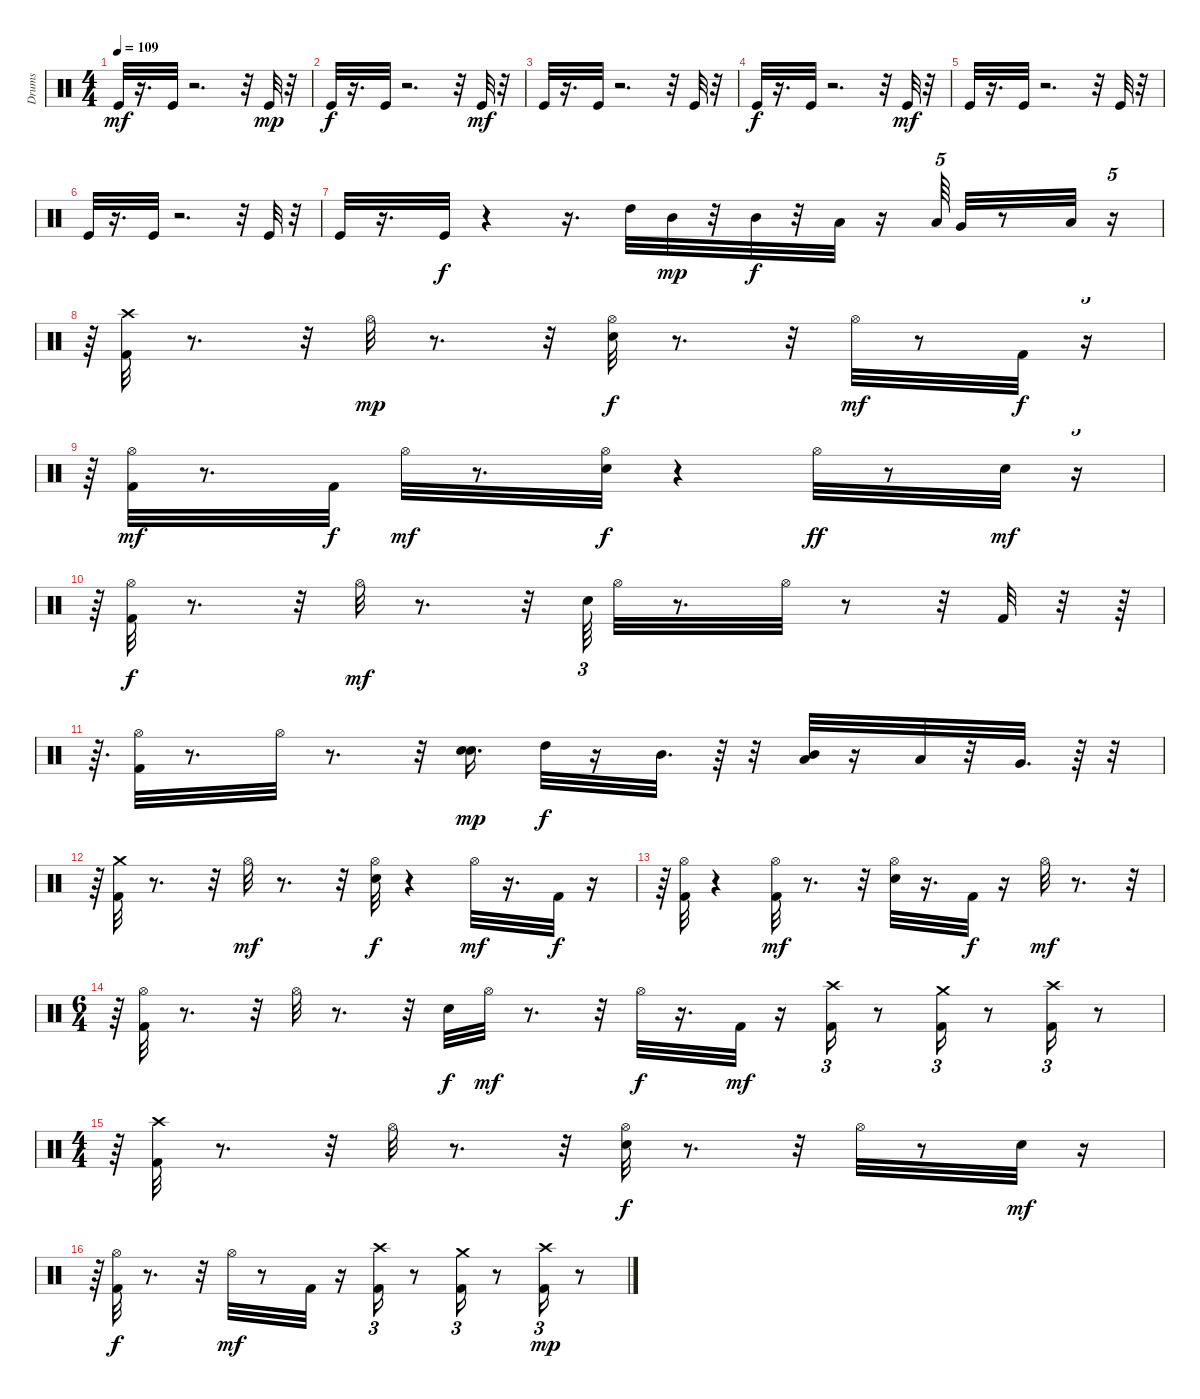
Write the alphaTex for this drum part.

\track ("Drums" "Drums") {solo instrument percussion}
\staff {score}
\articulation defaults
\ts (4 4)
\tempo 109
\clef neutral
\ks c "Kick (hit)".32{dy mf}
r.16{d} "Kick (hit)".32 r.2{d} r.32 "Kick (hit)".32{dy mp} r.32 |
"Kick (hit)".32{dy f} r.16{d} "Kick (hit)".32 r.2{d} r.32 "Kick (hit)".32{dy mf} r.32 |
"Kick (hit)".32 r.16{d} "Kick (hit)".32 r.2{d} r.32 "Kick (hit)".32 r.32 |
"Kick (hit)".32{dy f} r.16{d} "Kick (hit)".32 r.2{d} r.32 "Kick (hit)".32{dy mf} r.32 |
"Kick (hit)".32 r.16{d} "Kick (hit)".32 r.2{d} r.32 "Kick (hit)".32 r.32 |
"Kick (hit)".32 r.16{d} "Kick (hit)".32 r.2{d} r.32 "Kick (hit)".32 r.32 |
"Kick (hit)".32 r.16{d} "Kick (hit)".32{dy f} r.4 r.16{d} "High Tom (hit)".32 "Mid Tom (hit)".32{dy mp} r.32 "Mid Tom (hit)".32{dy f} r.32 "Low Tom (hit)".32 r.16 "Low Tom (hit)".64{tu (5 4)} "Very Low Tom (hit)".32 r.8 "Low Floor Tom (hit)".32 r.16{tu (5 4)} |
r.64{tu (5 4)} ("Kick (hit) 2" "Crash high (hit)").32 r.8{d} r.32 "Hi-Hat (open)".32{dy mp} r.8{d} r.32 ("Electric Snare (hit)" "Hi-Hat (open)").32{dy f} r.8{d} r.32 "Hi-Hat (open)".32{dy mf} r.8 "Kick (hit) 2".32{dy f} r.16{tu (5 4)} |
r.64{tu (5 4)} ("Kick (hit) 2" "Hi-Hat (open)").32{dy mf} r.8{d} "Kick (hit) 2".32{dy f} "Hi-Hat (open)".32{dy mf} r.8{d} ("Hi-Hat (open)" "Electric Snare (hit)").32{dy f} r.4 "Hi-Hat (open)".32{dy ff} r.8 "Electric Snare (hit)".32{dy mf} r.16{tu (5 4)} |
r.64{tu (5 4)} ("Hi-Hat (open)" "Kick (hit) 2").32{dy f} r.8{d} r.32 "Hi-Hat (open)".32{dy mf} r.8{d} r.32 "Electric Snare (hit)".64{tu (3 2)} "Hi-Hat (open)".32 r.8{d} "Hi-Hat (open)".32 r.8 r.32 "Kick (hit) 2".32 r.32 r.64 |
r.64{d} ("Kick (hit) 2" "Hi-Hat (open)").32 r.8{d} "Hi-Hat (open)".32 r.8{d} r.32 ("Electric Snare (hit)" "Electric Snare (hit)").16{d dy mp} "High Tom (hit)".32{dy f} r.16 "Mid Tom (hit)".32{d} r.64 r.32 ("Mid Tom (hit)" "Low Tom (hit)").32 r.16 "Low Tom (hit)".32 r.32 "Very Low Tom (hit)".32{d} r.64 r.32 |
r.64 ("Crash medium (hit)" "Kick (hit) 2").32 r.8{d} r.32 "Hi-Hat (open)".32{dy mf} r.8{d} r.32 ("Hi-Hat (open)" "Electric Snare (hit)").32{dy f} r.4 "Hi-Hat (open)".32{dy mf} r.16{d} "Kick (hit) 2".32{dy f} r.16 |
r.64 ("Kick (hit) 2" "Hi-Hat (open)").32 r.4 ("Hi-Hat (open)" "Kick (hit) 2").32{dy mf} r.8{d} r.32 ("Electric Snare (hit)" "Hi-Hat (open)").32 r.16{d} "Kick (hit) 2".32{dy f} r.16 "Hi-Hat (open)".32{dy mf} r.8{d} r.32 |
\ts (6 4)
r.64 ("Hi-Hat (open)" "Kick (hit) 2").32 r.8{d} r.32 "Hi-Hat (open)".32 r.8{d} r.32 "Electric Snare (hit)".32{dy f} "Hi-Hat (open)".32{dy mf} r.8{d} r.32 "Hi-Hat (open)".32{dy f} r.16{d} "Kick (hit) 2".32{dy mf} r.16 ("Crash high (hit)" "Kick (hit) 2").16{tu (3 2)} r.8 ("Kick (hit) 2" "Crash medium (hit)").16{tu (3 2)} r.8 ("Kick (hit) 2" "Crash high (hit)").16{tu (3 2)} r.8 |
\ts (4 4)
r.64 ("Kick (hit) 2" "Crash high (hit)").32 r.8{d} r.32 "Hi-Hat (open)".32 r.8{d} r.32 ("Electric Snare (hit)" "Hi-Hat (open)").32{dy f} r.8{d} r.32 "Hi-Hat (open)".32 r.8 "Electric Snare (hit)".32{dy mf} r.16 |
r.64 ("Kick (hit) 2" "Hi-Hat (open)").32{dy f} r.8{d} r.32 "Hi-Hat (open)".32{dy mf} r.8 "Kick (hit) 2".32 r.16 ("Kick (hit) 2" "Crash high (hit)").16{tu (3 2)} r.8 ("Kick (hit) 2" "Crash medium (hit)").16{tu (3 2)} r.8 ("Kick (hit) 2" "Crash high (hit)").16{tu (3 2) dy mp} r.8
